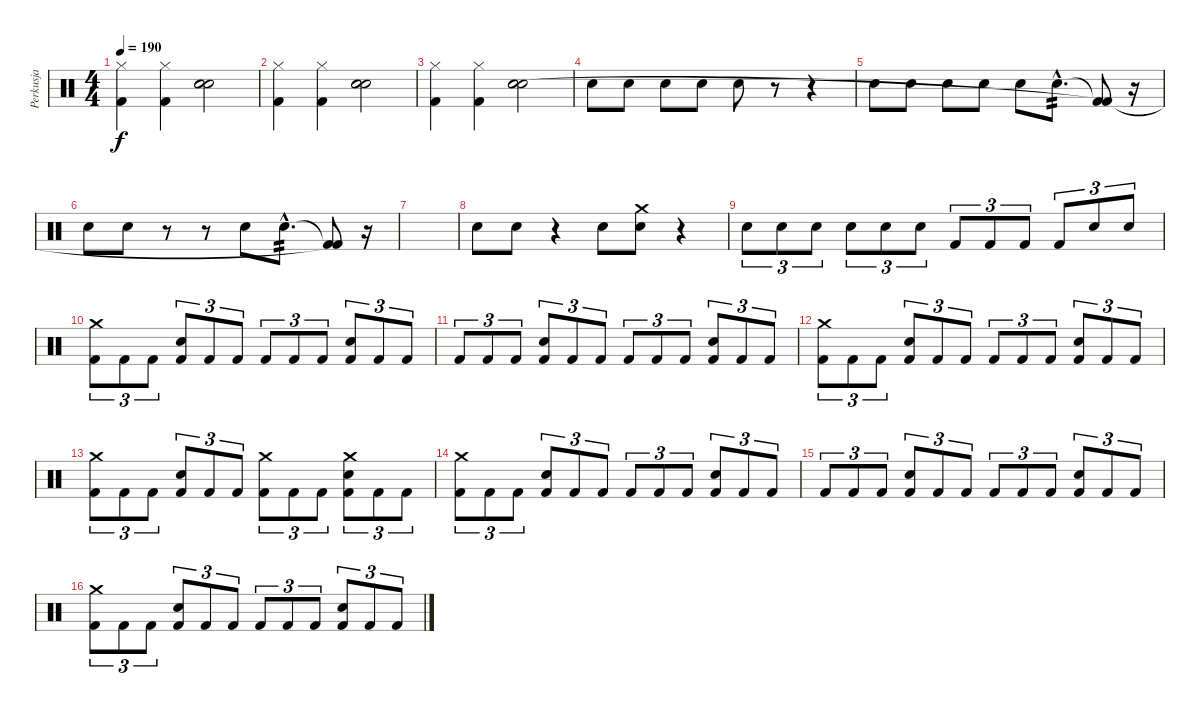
\track ("Perkusja" "Perkusja") {instrument percussion}
\staff {score}
\articulation defaults
\ts (4 4)
\tempo 190
\clef neutral
\ks c
("Hi-Hat (closed)" "Kick (hit) 2").4{dy f} ("Hi-Hat (closed)" "Kick (hit) 2").4 ("Electric Snare (hit)" "Electric Snare (hit)" "Electric Snare (hit)").2 |
("Hi-Hat (closed)" "Kick (hit) 2").4 ("Hi-Hat (closed)" "Kick (hit) 2").4 ("Electric Snare (hit)" "Electric Snare (hit)" "Electric Snare (hit)").2 |
("Hi-Hat (closed)" "Kick (hit) 2").4 ("Hi-Hat (closed)" "Kick (hit) 2").4 ("Electric Snare (hit)" "Electric Snare (hit)" "Electric Snare (hit)").2 |
"Electric Snare (hit)".8 "Electric Snare (hit)".8 "Electric Snare (hit)".8 "Electric Snare (hit)".8 "Electric Snare (hit)".8 r.8 r.4 |
"Electric Snare (hit)".8 "Electric Snare (hit)".8 "Electric Snare (hit)".8 "Electric Snare (hit)".8 "Electric Snare (hit)".8 "Electric Snare (hit)"{hac}.8{d tp 2} ("Kick (hit) 2"{t} "Kick (hit) 2"{t}).8 r.16 |
"Electric Snare (hit)".8 "Electric Snare (hit)".8 r.8 r.8 "Electric Snare (hit)".8 "Electric Snare (hit)"{hac}.8{d tp 2} ("Kick (hit) 2"{t} "Kick (hit) 2"{t}).8 r.16 |
|
"Electric Snare (hit)".8 "Electric Snare (hit)".8 r.4 "Electric Snare (hit)".8 ("Crash medium (hit)" "Electric Snare (hit)").8 r.4 |
"Electric Snare (hit)".8{tu (3 2) balance 12} "Electric Snare (hit)".8{tu (3 2)} "Electric Snare (hit)".8{tu (3 2)} "Electric Snare (hit)".8{tu (3 2)} "Electric Snare (hit)".8{tu (3 2)} "Electric Snare (hit)".8{tu (3 2)} "Kick (hit) 2".8{tu (3 2) volume 16 balance 6} "Kick (hit) 2".8{tu (3 2)} "Kick (hit) 2".8{tu (3 2)} "Kick (hit) 2".8{tu (3 2)} "Electric Snare (hit)".8{tu (3 2)} "Electric Snare (hit)".8{tu (3 2)} |
("Crash medium (hit)" "Kick (hit) 2").8{tu (3 2) volume 12} "Kick (hit) 2".8{tu (3 2)} "Kick (hit) 2".8{tu (3 2)} ("Electric Snare (hit)" "Kick (hit) 2").8{tu (3 2)} "Kick (hit) 2".8{tu (3 2)} "Kick (hit) 2".8{tu (3 2)} "Kick (hit) 2".8{tu (3 2)} "Kick (hit) 2".8{tu (3 2)} "Kick (hit) 2".8{tu (3 2)} ("Electric Snare (hit)" "Kick (hit) 2").8{tu (3 2)} "Kick (hit) 2".8{tu (3 2)} "Kick (hit) 2".8{tu (3 2)} |
"Kick (hit) 2".8{tu (3 2)} "Kick (hit) 2".8{tu (3 2)} "Kick (hit) 2".8{tu (3 2)} ("Electric Snare (hit)" "Kick (hit) 2").8{tu (3 2)} "Kick (hit) 2".8{tu (3 2)} "Kick (hit) 2".8{tu (3 2)} "Kick (hit) 2".8{tu (3 2)} "Kick (hit) 2".8{tu (3 2)} "Kick (hit) 2".8{tu (3 2)} ("Electric Snare (hit)" "Kick (hit) 2").8{tu (3 2)} "Kick (hit) 2".8{tu (3 2)} "Kick (hit) 2".8{tu (3 2)} |
("Crash medium (hit)" "Kick (hit) 2").8{tu (3 2)} "Kick (hit) 2".8{tu (3 2)} "Kick (hit) 2".8{tu (3 2)} ("Electric Snare (hit)" "Kick (hit) 2").8{tu (3 2)} "Kick (hit) 2".8{tu (3 2)} "Kick (hit) 2".8{tu (3 2)} "Kick (hit) 2".8{tu (3 2)} "Kick (hit) 2".8{tu (3 2)} "Kick (hit) 2".8{tu (3 2)} ("Electric Snare (hit)" "Kick (hit) 2").8{tu (3 2)} "Kick (hit) 2".8{tu (3 2)} "Kick (hit) 2".8{tu (3 2)} |
("Crash medium (hit)" "Kick (hit) 2").8{tu (3 2)} "Kick (hit) 2".8{tu (3 2)} "Kick (hit) 2".8{tu (3 2)} ("Electric Snare (hit)" "Kick (hit) 2").8{tu (3 2)} "Kick (hit) 2".8{tu (3 2)} "Kick (hit) 2".8{tu (3 2)} ("Crash medium (hit)" "Kick (hit) 2").8{tu (3 2)} "Kick (hit) 2".8{tu (3 2)} "Kick (hit) 2".8{tu (3 2)} ("Crash medium (hit)" "Electric Snare (hit)" "Kick (hit) 2").8{tu (3 2)} "Kick (hit) 2".8{tu (3 2)} "Kick (hit) 2".8{tu (3 2)} |
("Crash medium (hit)" "Kick (hit) 2").8{tu (3 2)} "Kick (hit) 2".8{tu (3 2)} "Kick (hit) 2".8{tu (3 2)} ("Electric Snare (hit)" "Kick (hit) 2").8{tu (3 2)} "Kick (hit) 2".8{tu (3 2)} "Kick (hit) 2".8{tu (3 2)} "Kick (hit) 2".8{tu (3 2)} "Kick (hit) 2".8{tu (3 2)} "Kick (hit) 2".8{tu (3 2)} ("Electric Snare (hit)" "Kick (hit) 2").8{tu (3 2)} "Kick (hit) 2".8{tu (3 2)} "Kick (hit) 2".8{tu (3 2)} |
"Kick (hit) 2".8{tu (3 2)} "Kick (hit) 2".8{tu (3 2)} "Kick (hit) 2".8{tu (3 2)} ("Electric Snare (hit)" "Kick (hit) 2").8{tu (3 2)} "Kick (hit) 2".8{tu (3 2)} "Kick (hit) 2".8{tu (3 2)} "Kick (hit) 2".8{tu (3 2)} "Kick (hit) 2".8{tu (3 2)} "Kick (hit) 2".8{tu (3 2)} ("Electric Snare (hit)" "Kick (hit) 2").8{tu (3 2)} "Kick (hit) 2".8{tu (3 2)} "Kick (hit) 2".8{tu (3 2)} |
("Crash medium (hit)" "Kick (hit) 2").8{tu (3 2)} "Kick (hit) 2".8{tu (3 2)} "Kick (hit) 2".8{tu (3 2)} ("Electric Snare (hit)" "Kick (hit) 2").8{tu (3 2)} "Kick (hit) 2".8{tu (3 2)} "Kick (hit) 2".8{tu (3 2)} "Kick (hit) 2".8{tu (3 2)} "Kick (hit) 2".8{tu (3 2)} "Kick (hit) 2".8{tu (3 2)} ("Electric Snare (hit)" "Kick (hit) 2").8{tu (3 2)} "Kick (hit) 2".8{tu (3 2)} "Kick (hit) 2".8{tu (3 2)}
